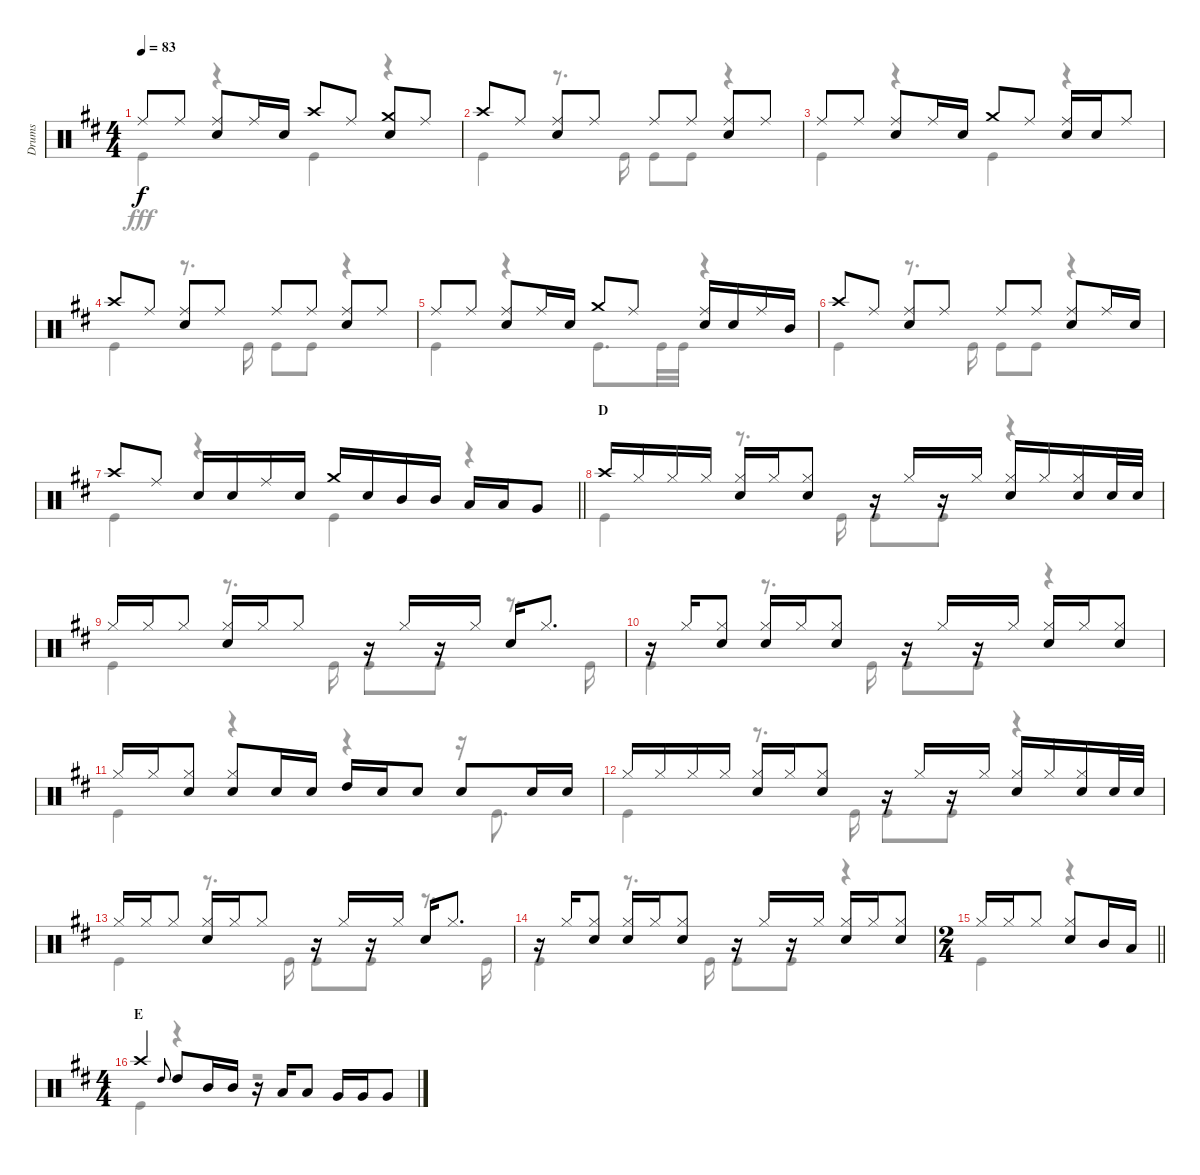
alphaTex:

\track ("Drums" "Drums") {instrument percussion}
\staff {score}
\articulation defaults
\voice
\ts (4 4)
\tempo 83
\clef neutral
\ks d "Ride (middle)".8{dy f} "Ride (middle)".8
("Ride (middle)" "Snare (hit) 2").8 "Ride (middle)".16 "Snare (hit) 2".16 "Crash high (hit)".8 "Ride (middle)".8 ("Crash medium (hit)" "Snare (hit) 2").8 "Ride (middle)".8 |
"Crash high (hit)".8 "Ride (middle)".8 ("Ride (middle)" "Snare (hit) 2").8 "Ride (middle)".8 "Ride (middle)".8 "Ride (middle)".8 ("Ride (middle)" "Snare (hit) 2").8 "Ride (middle)".8 |
"Ride (middle)".8 "Ride (middle)".8 ("Ride (middle)" "Snare (hit) 2").8 "Ride (middle)".16 "Snare (hit) 2".16 "Crash medium (hit)".8 "Ride (middle)".8 ("Ride (middle)" "Snare (hit) 2").16 "Snare (hit) 2".16 "Ride (middle)".8 |
"Crash high (hit)".8 "Ride (middle)".8 ("Ride (middle)" "Snare (hit) 2").8 "Ride (middle)".8 "Ride (middle)".8 "Ride (middle)".8 ("Ride (middle)" "Snare (hit) 2").8 "Ride (middle)".8 |
"Ride (middle)".8 "Ride (middle)".8 ("Ride (middle)" "Snare (hit) 2").8 "Ride (middle)".16 "Snare (hit) 2".16 "Crash medium (hit)".8 "Ride (middle)".8 ("Ride (middle)" "Snare (hit) 2").16 "Snare (hit) 2".16 "Ride (middle)".16 "Mid Tom (hit)".16 |
"Crash high (hit)".8 "Ride (middle)".8 ("Ride (middle)" "Snare (hit) 2").8 "Ride (middle)".8 "Ride (middle)".8 "Ride (middle)".8 ("Ride (middle)" "Snare (hit) 2").8 "Ride (middle)".16 "Snare (hit) 2".16 |
\barLineRight lightlight "Crash high (hit)".8 "Ride (middle)".8 "Snare (hit) 2".16 "Snare (hit) 2".16 "Ride (middle)".16 "Snare (hit) 2".16 "Crash medium (hit)".16 "Snare (hit) 2".16 "Mid Tom (hit)".16 "Mid Tom (hit)".16 "Low Tom (hit)".16 "Low Tom (hit)".16 "Very Low Tom (hit)".8
|
\section ("" "D")
"Crash high (hit)".16 "Hi-Hat (closed)".16 "Hi-Hat (closed)".16 "Hi-Hat (closed)".16 ("Hi-Hat (closed)" "Snare (hit) 2").16 "Hi-Hat (closed)".16 ("Hi-Hat (closed)" "Snare (hit) 2").8 r.16 "Hi-Hat (closed)".16 r.16 "Hi-Hat (closed)".16 ("Hi-Hat (closed)" "Snare (hit) 2").16 "Hi-Hat (closed)".16 ("Hi-Hat (closed)" "Snare (hit) 2").16 "Snare (hit) 2".32 "Snare (hit) 2".32 |
"Hi-Hat (closed)".16 "Hi-Hat (closed)".16 "Hi-Hat (closed)".8 ("Hi-Hat (closed)" "Snare (hit) 2").16 "Hi-Hat (closed)".16 "Hi-Hat (closed)".8 r.16 "Hi-Hat (closed)".16 r.16 "Hi-Hat (closed)".16 "Snare (hit) 2".16 "Hi-Hat (closed)".8{d} |
r.16 "Hi-Hat (closed)".16 ("Hi-Hat (closed)" "Snare (hit) 2").8 ("Hi-Hat (closed)" "Snare (hit) 2").16 "Hi-Hat (closed)".16 ("Hi-Hat (closed)" "Snare (hit) 2").8 r.16 "Hi-Hat (closed)".16 r.16 "Hi-Hat (closed)".16 ("Hi-Hat (closed)" "Snare (hit) 2").16 "Hi-Hat (closed)".16 ("Hi-Hat (closed)" "Snare (hit) 2").8 |
"Hi-Hat (closed)".16 "Hi-Hat (closed)".16 ("Hi-Hat (closed)" "Snare (hit) 2").8 ("Hi-Hat (closed)" "Snare (hit) 2").8 "Snare (hit) 2".16 "Snare (hit) 2".16 "High Tom (hit)".16 "Snare (hit) 2".16 "Snare (hit) 2".8 "Snare (hit) 2".8 "Snare (hit) 2".16 "Snare (hit) 2".16 |
"Hi-Hat (closed)".16 "Hi-Hat (closed)".16 "Hi-Hat (closed)".16 "Hi-Hat (closed)".16 ("Hi-Hat (closed)" "Snare (hit) 2").16 "Hi-Hat (closed)".16 ("Hi-Hat (closed)" "Snare (hit) 2").8 r.16 "Hi-Hat (closed)".16 r.16 "Hi-Hat (closed)".16 ("Hi-Hat (closed)" "Snare (hit) 2").16 "Hi-Hat (closed)".16 ("Hi-Hat (closed)" "Snare (hit) 2").16 "Snare (hit) 2".32 "Snare (hit) 2".32 |
"Hi-Hat (closed)".16 "Hi-Hat (closed)".16 "Hi-Hat (closed)".8 ("Hi-Hat (closed)" "Snare (hit) 2").16 "Hi-Hat (closed)".16 "Hi-Hat (closed)".8 r.16 "Hi-Hat (closed)".16 r.16 "Hi-Hat (closed)".16 "Snare (hit) 2".16 "Hi-Hat (closed)".8{d} |
r.16 "Hi-Hat (closed)".16 ("Hi-Hat (closed)" "Snare (hit) 2").8 ("Hi-Hat (closed)" "Snare (hit) 2").16 "Hi-Hat (closed)".16 ("Hi-Hat (closed)" "Snare (hit) 2").8 r.16 "Hi-Hat (closed)".16 r.16 "Hi-Hat (closed)".16 ("Hi-Hat (closed)" "Snare (hit) 2").16 "Hi-Hat (closed)".16 ("Hi-Hat (closed)" "Snare (hit) 2").8 |
\ts (2 4)
\barLineRight lightlight "Hi-Hat (closed)".16 "Hi-Hat (closed)".16 "Hi-Hat (closed)".8
("Hi-Hat (closed)" "Snare (hit) 2").8 "Mid Tom (hit)".16 "Low Tom (hit)".16 |
\ts (4 4)
\section ("" "E")
"Crash high (hit)".4 "High Tom (hit)".8{gr onbeat} "High Tom (hit)".8 "Mid Tom (hit)".16 "Mid Tom (hit)".16 r.16 "Low Tom (hit)".16 "Low Tom (hit)".8 "Very Low Tom (hit)".16 "Very Low Tom (hit)".16 "Very Low Tom (hit)".8
\voice
\clef neutral
\ottava regular
\simile none
\ks d "Kick (hit)".4{dy fff}
r.4 "Kick (hit)".4 r.4 |
"Kick (hit)".4 r.8{d} "Kick (hit)".16 "Kick (hit)".8 "Kick (hit)".8 r.4 |
"Kick (hit)".4 r.4 "Kick (hit)".4 r.4 |
"Kick (hit)".4 r.8{d} "Kick (hit)".16 "Kick (hit)".8 "Kick (hit)".8 r.4 |
"Kick (hit)".4 r.4 "Kick (hit)".8{d} "Kick (hit)".32 "Kick (hit)".32 r.4 |
"Kick (hit)".4 r.8{d} "Kick (hit)".16 "Kick (hit)".8 "Kick (hit)".8 r.4 |
\barLineRight lightlight "Kick (hit)".4
r.4 "Kick (hit)".4 r.4 |
"Kick (hit)".4 r.8{d} "Kick (hit)".16 "Kick (hit)".8 "Kick (hit)".8 r.4 |
"Kick (hit)".4 r.8{d} "Kick (hit)".16 "Kick (hit)".8 "Kick (hit)".8 r.8{d} "Kick (hit)".16 |
"Kick (hit)".4 r.8{d} "Kick (hit)".16 "Kick (hit)".8 "Kick (hit)".8 r.4 |
"Kick (hit)".4 r.4 r.4 r.16 "Kick (hit)".8{d} |
"Kick (hit)".4 r.8{d} "Kick (hit)".16 "Kick (hit)".8 "Kick (hit)".8 r.4 |
"Kick (hit)".4 r.8{d} "Kick (hit)".16 "Kick (hit)".8 "Kick (hit)".8 r.8{d} "Kick (hit)".16 |
"Kick (hit)".4 r.8{d} "Kick (hit)".16 "Kick (hit)".8 "Kick (hit)".8 r.4 |
\barLineRight lightlight "Kick (hit)".4
r.4 |
"Kick (hit)".4 r.4 r.2
